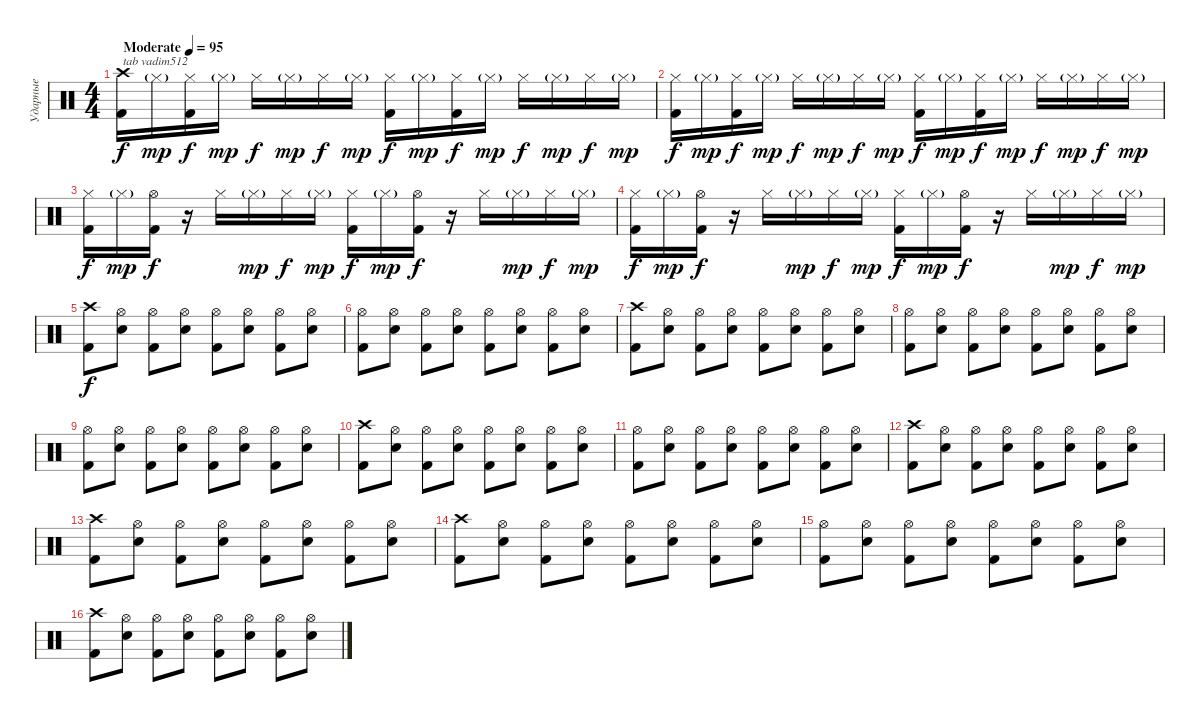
\track ("Ударные" "Ударные") {instrument percussion}
\staff {score}
\articulation defaults
\ts (4 4)
\tempo (95 "Moderate")
\clef neutral
\ks c
("Kick (hit) 2" "Crash high (hit)").16{txt "tab vadim512" dy f} "Hi-Hat (closed)"{g}.16{dy mp} ("Kick (hit) 2" "Hi-Hat (closed)").16{dy f} "Hi-Hat (closed)"{g}.16{dy mp} "Hi-Hat (closed)".16{dy f} "Hi-Hat (closed)"{g}.16{dy mp} "Hi-Hat (closed)".16{dy f} "Hi-Hat (closed)"{g}.16{dy mp} ("Kick (hit) 2" "Hi-Hat (closed)").16{dy f} "Hi-Hat (closed)"{g}.16{dy mp} ("Kick (hit) 2" "Hi-Hat (closed)").16{dy f} "Hi-Hat (closed)"{g}.16{dy mp} "Hi-Hat (closed)".16{dy f} "Hi-Hat (closed)"{g}.16{dy mp} "Hi-Hat (closed)".16{dy f} "Hi-Hat (closed)"{g}.16{dy mp} |
("Kick (hit) 2" "Hi-Hat (closed)").16{dy f} "Hi-Hat (closed)"{g}.16{dy mp} ("Kick (hit) 2" "Hi-Hat (closed)").16{dy f} "Hi-Hat (closed)"{g}.16{dy mp} "Hi-Hat (closed)".16{dy f} "Hi-Hat (closed)"{g}.16{dy mp} "Hi-Hat (closed)".16{dy f} "Hi-Hat (closed)"{g}.16{dy mp} ("Kick (hit) 2" "Hi-Hat (closed)").16{dy f} "Hi-Hat (closed)"{g}.16{dy mp} ("Kick (hit) 2" "Hi-Hat (closed)").16{dy f} "Hi-Hat (closed)"{g}.16{dy mp} "Hi-Hat (closed)".16{dy f} "Hi-Hat (closed)"{g}.16{dy mp} "Hi-Hat (closed)".16{dy f} "Hi-Hat (closed)"{g}.16{dy mp} |
("Kick (hit) 2" "Hi-Hat (closed)").16{dy f} "Hi-Hat (closed)"{g}.16{dy mp} ("Kick (hit) 2" "Hi-Hat (open)").16{dy f} r.16 "Hi-Hat (closed)".16 "Hi-Hat (closed)"{g}.16{dy mp} "Hi-Hat (closed)".16{dy f} "Hi-Hat (closed)"{g}.16{dy mp} ("Kick (hit) 2" "Hi-Hat (closed)").16{dy f} "Hi-Hat (closed)"{g}.16{dy mp} ("Kick (hit) 2" "Hi-Hat (open)").16{dy f} r.16 "Hi-Hat (closed)".16 "Hi-Hat (closed)"{g}.16{dy mp} "Hi-Hat (closed)".16{dy f} "Hi-Hat (closed)"{g}.16{dy mp} |
("Kick (hit) 2" "Hi-Hat (closed)").16{dy f} "Hi-Hat (closed)"{g}.16{dy mp} ("Kick (hit) 2" "Hi-Hat (open)").16{dy f} r.16 "Hi-Hat (closed)".16 "Hi-Hat (closed)"{g}.16{dy mp} "Hi-Hat (closed)".16{dy f} "Hi-Hat (closed)"{g}.16{dy mp} ("Kick (hit) 2" "Hi-Hat (closed)").16{dy f} "Hi-Hat (closed)"{g}.16{dy mp} ("Kick (hit) 2" "Hi-Hat (open)").16{dy f} r.16 "Hi-Hat (closed)".16 "Hi-Hat (closed)"{g}.16{dy mp} "Hi-Hat (closed)".16{dy f} "Hi-Hat (closed)"{g}.16{dy mp} |
("Kick (hit) 2" "Crash high (hit)").8{dy f} ("Electric Snare (hit)" "Hi-Hat (open)").8 ("Kick (hit) 2" "Hi-Hat (open)").8 ("Electric Snare (hit)" "Hi-Hat (open)").8 ("Kick (hit) 2" "Hi-Hat (open)").8 ("Electric Snare (hit)" "Hi-Hat (open)").8 ("Kick (hit) 2" "Hi-Hat (open)").8 ("Electric Snare (hit)" "Hi-Hat (open)").8 |
("Kick (hit) 2" "Hi-Hat (open)").8 ("Electric Snare (hit)" "Hi-Hat (open)").8 ("Kick (hit) 2" "Hi-Hat (open)").8 ("Electric Snare (hit)" "Hi-Hat (open)").8 ("Kick (hit) 2" "Hi-Hat (open)").8 ("Electric Snare (hit)" "Hi-Hat (open)").8 ("Kick (hit) 2" "Hi-Hat (open)").8 ("Electric Snare (hit)" "Hi-Hat (open)").8 |
("Kick (hit) 2" "Crash high (hit)").8 ("Electric Snare (hit)" "Hi-Hat (open)").8 ("Kick (hit) 2" "Hi-Hat (open)").8 ("Electric Snare (hit)" "Hi-Hat (open)").8 ("Kick (hit) 2" "Hi-Hat (open)").8 ("Electric Snare (hit)" "Hi-Hat (open)").8 ("Kick (hit) 2" "Hi-Hat (open)").8 ("Electric Snare (hit)" "Hi-Hat (open)").8 |
("Kick (hit) 2" "Hi-Hat (open)").8 ("Electric Snare (hit)" "Hi-Hat (open)").8 ("Kick (hit) 2" "Hi-Hat (open)").8 ("Electric Snare (hit)" "Hi-Hat (open)").8 ("Kick (hit) 2" "Hi-Hat (open)").8 ("Electric Snare (hit)" "Hi-Hat (open)").8 ("Kick (hit) 2" "Hi-Hat (open)").8 ("Electric Snare (hit)" "Hi-Hat (open)").8 |
("Kick (hit) 2" "Hi-Hat (open)").8 ("Electric Snare (hit)" "Hi-Hat (open)").8 ("Kick (hit) 2" "Hi-Hat (open)").8 ("Electric Snare (hit)" "Hi-Hat (open)").8 ("Kick (hit) 2" "Hi-Hat (open)").8 ("Electric Snare (hit)" "Hi-Hat (open)").8 ("Kick (hit) 2" "Hi-Hat (open)").8 ("Electric Snare (hit)" "Hi-Hat (open)").8 |
("Kick (hit) 2" "Crash high (hit)").8 ("Electric Snare (hit)" "Hi-Hat (open)").8 ("Kick (hit) 2" "Hi-Hat (open)").8 ("Electric Snare (hit)" "Hi-Hat (open)").8 ("Kick (hit) 2" "Hi-Hat (open)").8 ("Electric Snare (hit)" "Hi-Hat (open)").8 ("Kick (hit) 2" "Hi-Hat (open)").8 ("Electric Snare (hit)" "Hi-Hat (open)").8 |
("Kick (hit) 2" "Hi-Hat (open)").8 ("Electric Snare (hit)" "Hi-Hat (open)").8 ("Kick (hit) 2" "Hi-Hat (open)").8 ("Electric Snare (hit)" "Hi-Hat (open)").8 ("Kick (hit) 2" "Hi-Hat (open)").8 ("Electric Snare (hit)" "Hi-Hat (open)").8 ("Kick (hit) 2" "Hi-Hat (open)").8 ("Electric Snare (hit)" "Hi-Hat (open)").8 |
("Kick (hit) 2" "Crash high (hit)").8 ("Electric Snare (hit)" "Hi-Hat (open)").8 ("Kick (hit) 2" "Hi-Hat (open)").8 ("Electric Snare (hit)" "Hi-Hat (open)").8 ("Kick (hit) 2" "Hi-Hat (open)").8 ("Electric Snare (hit)" "Hi-Hat (open)").8 ("Kick (hit) 2" "Hi-Hat (open)").8 ("Electric Snare (hit)" "Hi-Hat (open)").8 |
("Kick (hit) 2" "Crash high (hit)").8 ("Electric Snare (hit)" "Hi-Hat (open)").8 ("Kick (hit) 2" "Hi-Hat (open)").8 ("Electric Snare (hit)" "Hi-Hat (open)").8 ("Kick (hit) 2" "Hi-Hat (open)").8 ("Electric Snare (hit)" "Hi-Hat (open)").8 ("Kick (hit) 2" "Hi-Hat (open)").8 ("Electric Snare (hit)" "Hi-Hat (open)").8 |
("Kick (hit) 2" "Crash high (hit)").8 ("Electric Snare (hit)" "Hi-Hat (open)").8 ("Kick (hit) 2" "Hi-Hat (open)").8 ("Electric Snare (hit)" "Hi-Hat (open)").8 ("Kick (hit) 2" "Hi-Hat (open)").8 ("Electric Snare (hit)" "Hi-Hat (open)").8 ("Kick (hit) 2" "Hi-Hat (open)").8 ("Electric Snare (hit)" "Hi-Hat (open)").8 |
("Kick (hit) 2" "Hi-Hat (open)").8 ("Electric Snare (hit)" "Hi-Hat (open)").8 ("Kick (hit) 2" "Hi-Hat (open)").8 ("Electric Snare (hit)" "Hi-Hat (open)").8 ("Kick (hit) 2" "Hi-Hat (open)").8 ("Electric Snare (hit)" "Hi-Hat (open)").8 ("Kick (hit) 2" "Hi-Hat (open)").8 ("Electric Snare (hit)" "Hi-Hat (open)").8 |
("Kick (hit) 2" "Crash high (hit)").8 ("Electric Snare (hit)" "Hi-Hat (open)").8 ("Kick (hit) 2" "Hi-Hat (open)").8 ("Electric Snare (hit)" "Hi-Hat (open)").8 ("Kick (hit) 2" "Hi-Hat (open)").8 ("Electric Snare (hit)" "Hi-Hat (open)").8 ("Kick (hit) 2" "Hi-Hat (open)").8 ("Electric Snare (hit)" "Hi-Hat (open)").8
